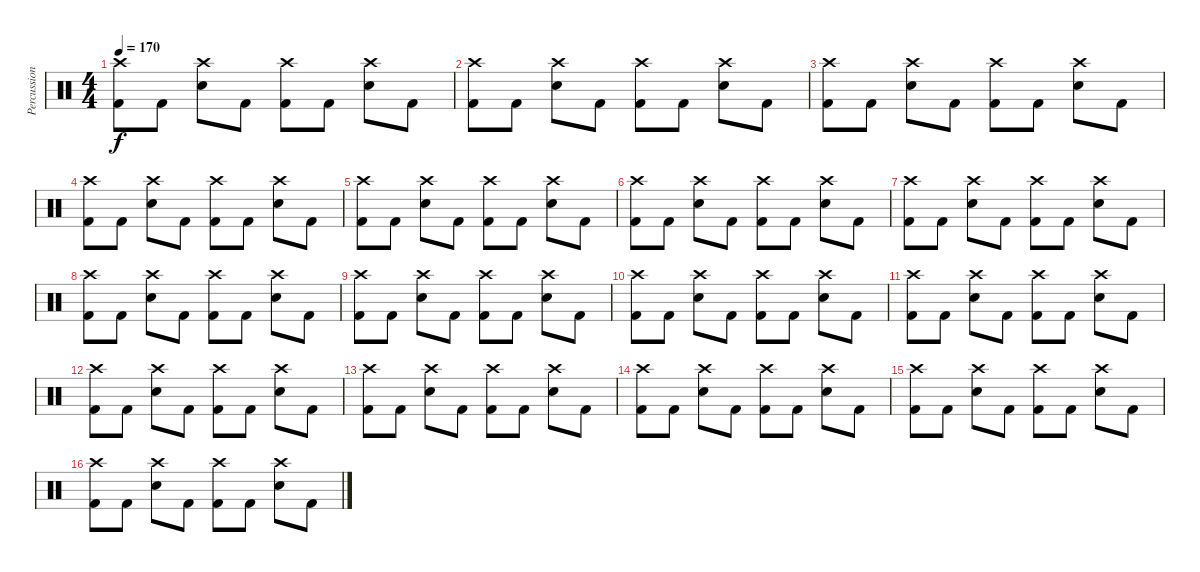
\track ("Percussion" "Percussion") {instrument percussion}
\staff {score}
\articulation defaults
\ts (4 4)
\tempo 170
\clef neutral
\ks c
("Crash high (hit)" "Kick (hit) 2").8{dy f} "Kick (hit) 2".8 ("Crash high (hit)" "Snare (hit) 2").8 "Kick (hit) 2".8 ("Crash high (hit)" "Kick (hit) 2").8 "Kick (hit) 2".8 ("Crash high (hit)" "Snare (hit) 2").8 "Kick (hit) 2".8 |
("Crash high (hit)" "Kick (hit) 2").8 "Kick (hit) 2".8 ("Crash high (hit)" "Snare (hit) 2").8 "Kick (hit) 2".8 ("Crash high (hit)" "Kick (hit) 2").8 "Kick (hit) 2".8 ("Crash high (hit)" "Snare (hit) 2").8 "Kick (hit) 2".8 |
("Crash high (hit)" "Kick (hit) 2").8 "Kick (hit) 2".8 ("Crash high (hit)" "Snare (hit) 2").8 "Kick (hit) 2".8 ("Crash high (hit)" "Kick (hit) 2").8 "Kick (hit) 2".8 ("Crash high (hit)" "Snare (hit) 2").8 "Kick (hit) 2".8 |
("Crash high (hit)" "Kick (hit) 2").8 "Kick (hit) 2".8 ("Crash high (hit)" "Snare (hit) 2").8 "Kick (hit) 2".8 ("Crash high (hit)" "Kick (hit) 2").8 "Kick (hit) 2".8 ("Crash high (hit)" "Snare (hit) 2").8 "Kick (hit) 2".8 |
("Crash high (hit)" "Kick (hit) 2").8 "Kick (hit) 2".8 ("Crash high (hit)" "Snare (hit) 2").8 "Kick (hit) 2".8 ("Crash high (hit)" "Kick (hit) 2").8 "Kick (hit) 2".8 ("Crash high (hit)" "Snare (hit) 2").8 "Kick (hit) 2".8 |
("Crash high (hit)" "Kick (hit) 2").8 "Kick (hit) 2".8 ("Crash high (hit)" "Snare (hit) 2").8 "Kick (hit) 2".8 ("Crash high (hit)" "Kick (hit) 2").8 "Kick (hit) 2".8 ("Crash high (hit)" "Snare (hit) 2").8 "Kick (hit) 2".8 |
("Crash high (hit)" "Kick (hit) 2").8 "Kick (hit) 2".8 ("Crash high (hit)" "Snare (hit) 2").8 "Kick (hit) 2".8 ("Crash high (hit)" "Kick (hit) 2").8 "Kick (hit) 2".8 ("Crash high (hit)" "Snare (hit) 2").8 "Kick (hit) 2".8 |
("Crash high (hit)" "Kick (hit) 2").8 "Kick (hit) 2".8 ("Crash high (hit)" "Snare (hit) 2").8 "Kick (hit) 2".8 ("Crash high (hit)" "Kick (hit) 2").8 "Kick (hit) 2".8 ("Crash high (hit)" "Snare (hit) 2").8 "Kick (hit) 2".8 |
("Crash high (hit)" "Kick (hit) 2").8 "Kick (hit) 2".8 ("Crash high (hit)" "Snare (hit) 2").8 "Kick (hit) 2".8 ("Crash high (hit)" "Kick (hit) 2").8 "Kick (hit) 2".8 ("Crash high (hit)" "Snare (hit) 2").8 "Kick (hit) 2".8 |
("Crash high (hit)" "Kick (hit) 2").8 "Kick (hit) 2".8 ("Crash high (hit)" "Snare (hit) 2").8 "Kick (hit) 2".8 ("Crash high (hit)" "Kick (hit) 2").8 "Kick (hit) 2".8 ("Crash high (hit)" "Snare (hit) 2").8 "Kick (hit) 2".8 |
("Crash high (hit)" "Kick (hit) 2").8 "Kick (hit) 2".8 ("Crash high (hit)" "Snare (hit) 2").8 "Kick (hit) 2".8 ("Crash high (hit)" "Kick (hit) 2").8 "Kick (hit) 2".8 ("Crash high (hit)" "Snare (hit) 2").8 "Kick (hit) 2".8 |
("Crash high (hit)" "Kick (hit) 2").8 "Kick (hit) 2".8 ("Crash high (hit)" "Snare (hit) 2").8 "Kick (hit) 2".8 ("Crash high (hit)" "Kick (hit) 2").8 "Kick (hit) 2".8 ("Crash high (hit)" "Snare (hit) 2").8 "Kick (hit) 2".8 |
("Crash high (hit)" "Kick (hit) 2").8 "Kick (hit) 2".8 ("Crash high (hit)" "Snare (hit) 2").8 "Kick (hit) 2".8 ("Crash high (hit)" "Kick (hit) 2").8 "Kick (hit) 2".8 ("Crash high (hit)" "Snare (hit) 2").8 "Kick (hit) 2".8 |
("Crash high (hit)" "Kick (hit) 2").8 "Kick (hit) 2".8 ("Crash high (hit)" "Snare (hit) 2").8 "Kick (hit) 2".8 ("Crash high (hit)" "Kick (hit) 2").8 "Kick (hit) 2".8 ("Crash high (hit)" "Snare (hit) 2").8 "Kick (hit) 2".8 |
("Crash high (hit)" "Kick (hit) 2").8 "Kick (hit) 2".8 ("Crash high (hit)" "Snare (hit) 2").8 "Kick (hit) 2".8 ("Crash high (hit)" "Kick (hit) 2").8 "Kick (hit) 2".8 ("Crash high (hit)" "Snare (hit) 2").8 "Kick (hit) 2".8 |
("Crash high (hit)" "Kick (hit) 2").8 "Kick (hit) 2".8 ("Crash high (hit)" "Snare (hit) 2").8 "Kick (hit) 2".8 ("Crash high (hit)" "Kick (hit) 2").8 "Kick (hit) 2".8 ("Crash high (hit)" "Snare (hit) 2").8 "Kick (hit) 2".8
